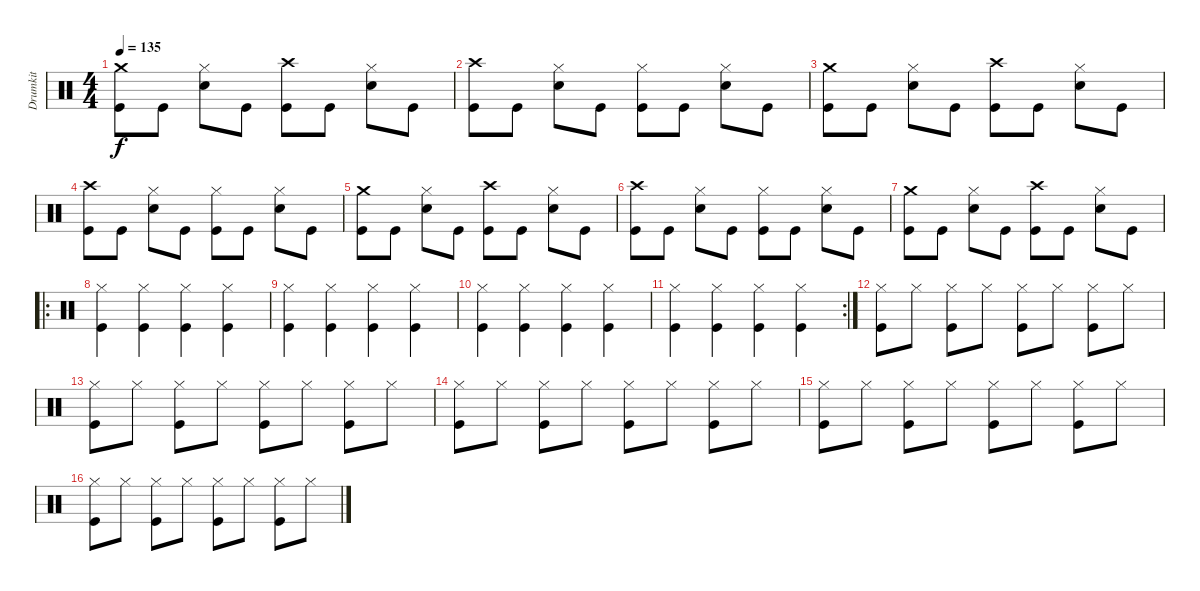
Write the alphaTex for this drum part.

\track ("Drumkit" "Drumkit") {instrument percussion}
\staff {score}
\articulation defaults
\ts (4 4)
\tempo 135
\clef neutral
\ks c
("Crash medium (hit)" "Kick (hit)").8{dy f} "Kick (hit)".8 ("Hi-Hat (closed)" "Snare (hit) 2").8 "Kick (hit)".8 ("Crash high (hit)" "Kick (hit)").8 "Kick (hit)".8 ("Hi-Hat (closed)" "Snare (hit) 2").8 "Kick (hit)".8 |
("Crash high (hit)" "Kick (hit)").8 "Kick (hit)".8 ("Hi-Hat (closed)" "Snare (hit) 2").8 "Kick (hit)".8 ("Hi-Hat (closed)" "Kick (hit)").8 "Kick (hit)".8 ("Hi-Hat (closed)" "Snare (hit) 2").8 "Kick (hit)".8 |
("Crash medium (hit)" "Kick (hit)").8 "Kick (hit)".8 ("Hi-Hat (closed)" "Snare (hit) 2").8 "Kick (hit)".8 ("Crash high (hit)" "Kick (hit)").8 "Kick (hit)".8 ("Hi-Hat (closed)" "Snare (hit) 2").8 "Kick (hit)".8 |
("Crash high (hit)" "Kick (hit)").8 "Kick (hit)".8 ("Hi-Hat (closed)" "Snare (hit) 2").8 "Kick (hit)".8 ("Hi-Hat (closed)" "Kick (hit)").8 "Kick (hit)".8 ("Hi-Hat (closed)" "Snare (hit) 2").8 "Kick (hit)".8 |
("Crash medium (hit)" "Kick (hit)").8 "Kick (hit)".8 ("Hi-Hat (closed)" "Snare (hit) 2").8 "Kick (hit)".8 ("Crash high (hit)" "Kick (hit)").8 "Kick (hit)".8 ("Hi-Hat (closed)" "Snare (hit) 2").8 "Kick (hit)".8 |
("Crash high (hit)" "Kick (hit)").8 "Kick (hit)".8 ("Hi-Hat (closed)" "Snare (hit) 2").8 "Kick (hit)".8 ("Hi-Hat (closed)" "Kick (hit)").8 "Kick (hit)".8 ("Hi-Hat (closed)" "Snare (hit) 2").8 "Kick (hit)".8 |
("Crash medium (hit)" "Kick (hit)").8 "Kick (hit)".8 ("Hi-Hat (closed)" "Snare (hit) 2").8 "Kick (hit)".8 ("Crash high (hit)" "Kick (hit)").8 "Kick (hit)".8 ("Hi-Hat (closed)" "Snare (hit) 2").8 "Kick (hit)".8 |
\ro
("Hi-Hat (closed)" "Kick (hit)").4 ("Hi-Hat (closed)" "Kick (hit)").4 ("Hi-Hat (closed)" "Kick (hit)").4 ("Hi-Hat (closed)" "Kick (hit)").4 |
("Hi-Hat (closed)" "Kick (hit)").4 ("Hi-Hat (closed)" "Kick (hit)").4 ("Hi-Hat (closed)" "Kick (hit)").4 ("Hi-Hat (closed)" "Kick (hit)").4 |
("Hi-Hat (closed)" "Kick (hit)").4 ("Hi-Hat (closed)" "Kick (hit)").4 ("Hi-Hat (closed)" "Kick (hit)").4 ("Hi-Hat (closed)" "Kick (hit)").4 |
\rc 2
("Hi-Hat (closed)" "Kick (hit)").4 ("Hi-Hat (closed)" "Kick (hit)").4 ("Hi-Hat (closed)" "Kick (hit)").4 ("Hi-Hat (closed)" "Kick (hit)").4 |
("Hi-Hat (closed)" "Kick (hit)").8 "Hi-Hat (closed)".8 ("Hi-Hat (closed)" "Kick (hit)").8 "Hi-Hat (closed)".8 ("Hi-Hat (closed)" "Kick (hit)").8 "Hi-Hat (closed)".8 ("Hi-Hat (closed)" "Kick (hit)").8 "Hi-Hat (closed)".8 |
("Hi-Hat (closed)" "Kick (hit)").8 "Hi-Hat (closed)".8 ("Hi-Hat (closed)" "Kick (hit)").8 "Hi-Hat (closed)".8 ("Hi-Hat (closed)" "Kick (hit)").8 "Hi-Hat (closed)".8 ("Hi-Hat (closed)" "Kick (hit)").8 "Hi-Hat (closed)".8 |
("Hi-Hat (closed)" "Kick (hit)").8 "Hi-Hat (closed)".8 ("Hi-Hat (closed)" "Kick (hit)").8 "Hi-Hat (closed)".8 ("Hi-Hat (closed)" "Kick (hit)").8 "Hi-Hat (closed)".8 ("Hi-Hat (closed)" "Kick (hit)").8 "Hi-Hat (closed)".8 |
("Hi-Hat (closed)" "Kick (hit)").8 "Hi-Hat (closed)".8 ("Hi-Hat (closed)" "Kick (hit)").8 "Hi-Hat (closed)".8 ("Hi-Hat (closed)" "Kick (hit)").8 "Hi-Hat (closed)".8 ("Hi-Hat (closed)" "Kick (hit)").8 "Hi-Hat (closed)".8 |
("Hi-Hat (closed)" "Kick (hit)").8 "Hi-Hat (closed)".8 ("Hi-Hat (closed)" "Kick (hit)").8 "Hi-Hat (closed)".8 ("Hi-Hat (closed)" "Kick (hit)").8 "Hi-Hat (closed)".8 ("Hi-Hat (closed)" "Kick (hit)").8 "Hi-Hat (closed)".8
